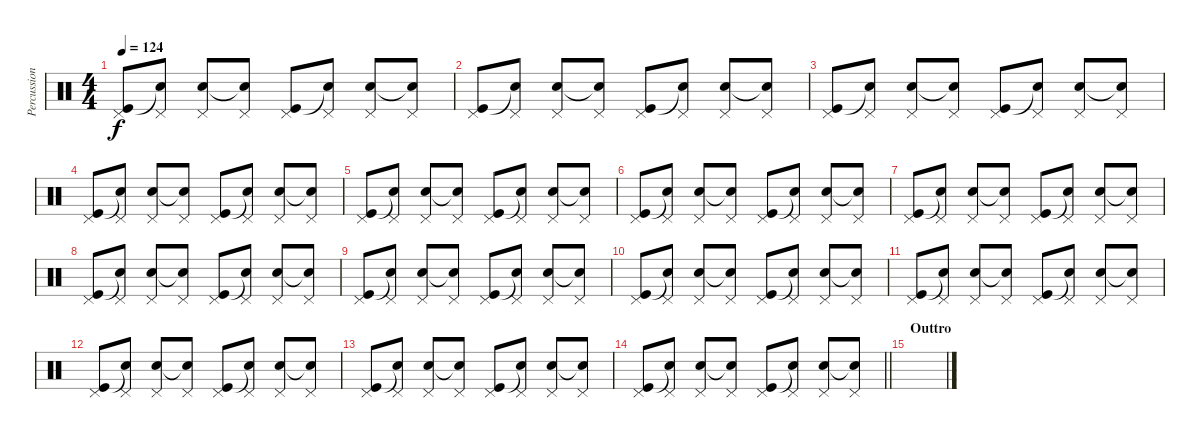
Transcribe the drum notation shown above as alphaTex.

\track ("Percussion" "Percussion") {instrument percussion}
\staff {score}
\articulation defaults
\ts (4 4)
\tempo 124
\clef neutral
\ks c
("Kick (hit)" "Pedal Hi-Hat (hit)").8{dy f} ("Snare (hit)"{t} "Pedal Hi-Hat (hit)").8 ("Snare (hit) 2" "Pedal Hi-Hat (hit)").8 ("Snare (hit)"{t} "Pedal Hi-Hat (hit)").8 ("Kick (hit)" "Pedal Hi-Hat (hit)").8 ("Snare (hit)"{t} "Pedal Hi-Hat (hit)").8 ("Snare (hit) 2" "Pedal Hi-Hat (hit)").8 ("Snare (hit)"{t} "Pedal Hi-Hat (hit)").8 |
("Kick (hit)" "Pedal Hi-Hat (hit)").8 ("Snare (hit)"{t} "Pedal Hi-Hat (hit)").8 ("Snare (hit) 2" "Pedal Hi-Hat (hit)").8 ("Snare (hit)"{t} "Pedal Hi-Hat (hit)").8 ("Kick (hit)" "Pedal Hi-Hat (hit)").8 ("Snare (hit)"{t} "Pedal Hi-Hat (hit)").8 ("Snare (hit) 2" "Pedal Hi-Hat (hit)").8 ("Snare (hit)"{t} "Pedal Hi-Hat (hit)").8 |
("Kick (hit)" "Pedal Hi-Hat (hit)").8 ("Snare (hit)"{t} "Pedal Hi-Hat (hit)").8 ("Snare (hit) 2" "Pedal Hi-Hat (hit)").8 ("Snare (hit)"{t} "Pedal Hi-Hat (hit)").8 ("Kick (hit)" "Pedal Hi-Hat (hit)").8 ("Snare (hit)"{t} "Pedal Hi-Hat (hit)").8 ("Snare (hit) 2" "Pedal Hi-Hat (hit)").8 ("Snare (hit)"{t} "Pedal Hi-Hat (hit)").8 |
("Kick (hit)" "Pedal Hi-Hat (hit)").8 ("Snare (hit)"{t} "Pedal Hi-Hat (hit)").8 ("Snare (hit) 2" "Pedal Hi-Hat (hit)").8 ("Snare (hit)"{t} "Pedal Hi-Hat (hit)").8 ("Kick (hit)" "Pedal Hi-Hat (hit)").8 ("Snare (hit)"{t} "Pedal Hi-Hat (hit)").8 ("Snare (hit) 2" "Pedal Hi-Hat (hit)").8 ("Snare (hit)"{t} "Pedal Hi-Hat (hit)").8 |
("Kick (hit)" "Pedal Hi-Hat (hit)").8 ("Snare (hit)"{t} "Pedal Hi-Hat (hit)").8 ("Snare (hit) 2" "Pedal Hi-Hat (hit)").8 ("Snare (hit)"{t} "Pedal Hi-Hat (hit)").8 ("Kick (hit)" "Pedal Hi-Hat (hit)").8 ("Snare (hit)"{t} "Pedal Hi-Hat (hit)").8 ("Snare (hit) 2" "Pedal Hi-Hat (hit)").8 ("Snare (hit)"{t} "Pedal Hi-Hat (hit)").8 |
("Kick (hit)" "Pedal Hi-Hat (hit)").8 ("Snare (hit)"{t} "Pedal Hi-Hat (hit)").8 ("Snare (hit) 2" "Pedal Hi-Hat (hit)").8 ("Snare (hit)"{t} "Pedal Hi-Hat (hit)").8 ("Kick (hit)" "Pedal Hi-Hat (hit)").8 ("Snare (hit)"{t} "Pedal Hi-Hat (hit)").8 ("Snare (hit) 2" "Pedal Hi-Hat (hit)").8 ("Snare (hit)"{t} "Pedal Hi-Hat (hit)").8 |
("Kick (hit)" "Pedal Hi-Hat (hit)").8 ("Snare (hit)"{t} "Pedal Hi-Hat (hit)").8 ("Snare (hit) 2" "Pedal Hi-Hat (hit)").8 ("Snare (hit)"{t} "Pedal Hi-Hat (hit)").8 ("Kick (hit)" "Pedal Hi-Hat (hit)").8 ("Snare (hit)"{t} "Pedal Hi-Hat (hit)").8 ("Snare (hit) 2" "Pedal Hi-Hat (hit)").8 ("Snare (hit)"{t} "Pedal Hi-Hat (hit)").8 |
("Kick (hit)" "Pedal Hi-Hat (hit)").8 ("Snare (hit)"{t} "Pedal Hi-Hat (hit)").8 ("Snare (hit) 2" "Pedal Hi-Hat (hit)").8 ("Snare (hit)"{t} "Pedal Hi-Hat (hit)").8 ("Kick (hit)" "Pedal Hi-Hat (hit)").8 ("Snare (hit)"{t} "Pedal Hi-Hat (hit)").8 ("Snare (hit) 2" "Pedal Hi-Hat (hit)").8 ("Snare (hit)"{t} "Pedal Hi-Hat (hit)").8 |
("Kick (hit)" "Pedal Hi-Hat (hit)").8 ("Snare (hit)"{t} "Pedal Hi-Hat (hit)").8 ("Snare (hit) 2" "Pedal Hi-Hat (hit)").8 ("Snare (hit)"{t} "Pedal Hi-Hat (hit)").8 ("Kick (hit)" "Pedal Hi-Hat (hit)").8 ("Snare (hit)"{t} "Pedal Hi-Hat (hit)").8 ("Snare (hit) 2" "Pedal Hi-Hat (hit)").8 ("Snare (hit)"{t} "Pedal Hi-Hat (hit)").8 |
("Kick (hit)" "Pedal Hi-Hat (hit)").8 ("Snare (hit)"{t} "Pedal Hi-Hat (hit)").8 ("Snare (hit) 2" "Pedal Hi-Hat (hit)").8 ("Snare (hit)"{t} "Pedal Hi-Hat (hit)").8 ("Kick (hit)" "Pedal Hi-Hat (hit)").8 ("Snare (hit)"{t} "Pedal Hi-Hat (hit)").8 ("Snare (hit) 2" "Pedal Hi-Hat (hit)").8 ("Snare (hit)"{t} "Pedal Hi-Hat (hit)").8 |
("Kick (hit)" "Pedal Hi-Hat (hit)").8 ("Snare (hit)"{t} "Pedal Hi-Hat (hit)").8 ("Snare (hit) 2" "Pedal Hi-Hat (hit)").8 ("Snare (hit)"{t} "Pedal Hi-Hat (hit)").8 ("Kick (hit)" "Pedal Hi-Hat (hit)").8 ("Snare (hit)"{t} "Pedal Hi-Hat (hit)").8 ("Snare (hit) 2" "Pedal Hi-Hat (hit)").8 ("Snare (hit)"{t} "Pedal Hi-Hat (hit)").8 |
("Kick (hit)" "Pedal Hi-Hat (hit)").8 ("Snare (hit)"{t} "Pedal Hi-Hat (hit)").8 ("Snare (hit) 2" "Pedal Hi-Hat (hit)").8 ("Snare (hit)"{t} "Pedal Hi-Hat (hit)").8 ("Kick (hit)" "Pedal Hi-Hat (hit)").8 ("Snare (hit)"{t} "Pedal Hi-Hat (hit)").8 ("Snare (hit) 2" "Pedal Hi-Hat (hit)").8 ("Snare (hit)"{t} "Pedal Hi-Hat (hit)").8 |
("Kick (hit)" "Pedal Hi-Hat (hit)").8 ("Snare (hit)"{t} "Pedal Hi-Hat (hit)").8 ("Snare (hit) 2" "Pedal Hi-Hat (hit)").8 ("Snare (hit)"{t} "Pedal Hi-Hat (hit)").8 ("Kick (hit)" "Pedal Hi-Hat (hit)").8 ("Snare (hit)"{t} "Pedal Hi-Hat (hit)").8 ("Snare (hit) 2" "Pedal Hi-Hat (hit)").8 ("Snare (hit)"{t} "Pedal Hi-Hat (hit)").8 |
\barLineRight lightlight
("Kick (hit)" "Pedal Hi-Hat (hit)").8 ("Snare (hit)"{t} "Pedal Hi-Hat (hit)").8 ("Snare (hit) 2" "Pedal Hi-Hat (hit)").8 ("Snare (hit)"{t} "Pedal Hi-Hat (hit)").8 ("Kick (hit)" "Pedal Hi-Hat (hit)").8 ("Snare (hit)"{t} "Pedal Hi-Hat (hit)").8 ("Snare (hit) 2" "Pedal Hi-Hat (hit)").8 ("Snare (hit)"{t} "Pedal Hi-Hat (hit)").8 |
\section ("" "Outtro")
